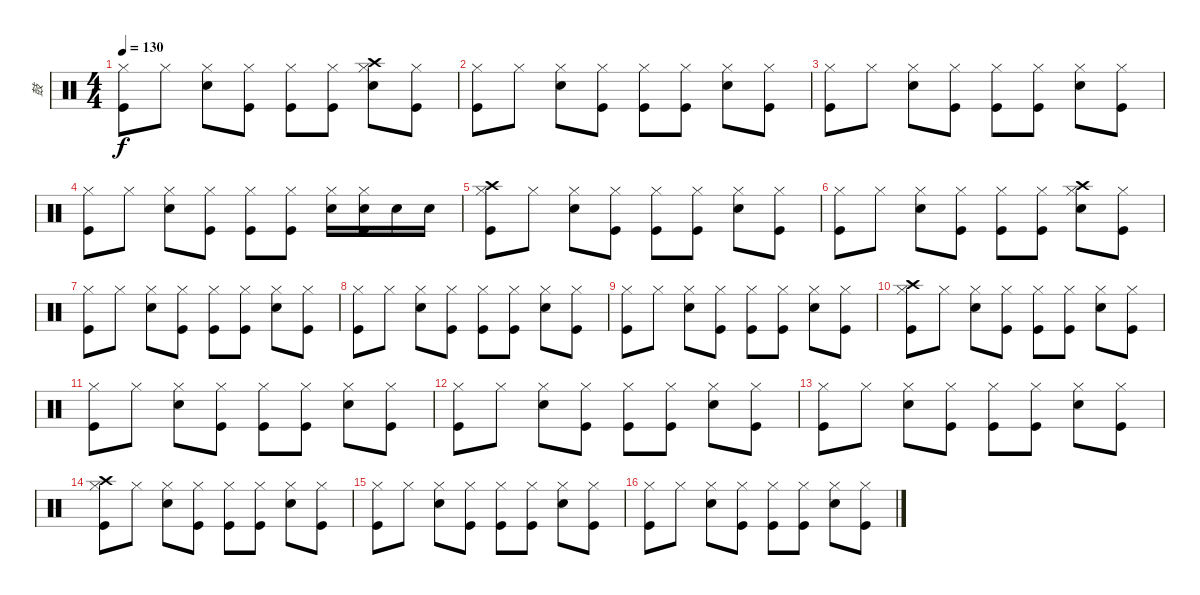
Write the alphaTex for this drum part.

\track ("鼓" "鼓") {instrument percussion}
\staff {score}
\articulation defaults
\ts (4 4)
\tempo 130
\clef neutral
\ks c
("Hi-Hat (closed)" "Kick (hit)").8{dy f} "Hi-Hat (closed)".8 ("Hi-Hat (closed)" "Snare (hit) 2").8 ("Hi-Hat (closed)" "Kick (hit)").8 ("Hi-Hat (closed)" "Kick (hit)").8 ("Hi-Hat (closed)" "Kick (hit)").8 ("Crash high (hit)" "Hi-Hat (closed)" "Snare (hit) 2").8 ("Hi-Hat (closed)" "Kick (hit)").8 |
("Hi-Hat (closed)" "Kick (hit)").8 "Hi-Hat (closed)".8 ("Hi-Hat (closed)" "Snare (hit) 2").8 ("Hi-Hat (closed)" "Kick (hit)").8 ("Hi-Hat (closed)" "Kick (hit)").8 ("Hi-Hat (closed)" "Kick (hit)").8 ("Hi-Hat (closed)" "Snare (hit) 2").8 ("Hi-Hat (closed)" "Kick (hit)").8 |
("Hi-Hat (closed)" "Kick (hit)").8 "Hi-Hat (closed)".8 ("Hi-Hat (closed)" "Snare (hit) 2").8 ("Hi-Hat (closed)" "Kick (hit)").8 ("Hi-Hat (closed)" "Kick (hit)").8 ("Hi-Hat (closed)" "Kick (hit)").8 ("Hi-Hat (closed)" "Snare (hit) 2").8 ("Hi-Hat (closed)" "Kick (hit)").8 |
("Hi-Hat (closed)" "Kick (hit)").8 "Hi-Hat (closed)".8 ("Hi-Hat (closed)" "Snare (hit) 2").8 ("Hi-Hat (closed)" "Kick (hit)").8 ("Hi-Hat (closed)" "Kick (hit)").8 ("Hi-Hat (closed)" "Kick (hit)").8 ("Hi-Hat (closed)" "Snare (hit) 2").16 ("Hi-Hat (closed)" "Snare (hit) 2" "Kick (hit)").16 "Snare (hit) 2".16 "Snare (hit) 2".16 |
("Crash high (hit)" "Hi-Hat (closed)" "Kick (hit)").8 "Hi-Hat (closed)".8 ("Hi-Hat (closed)" "Snare (hit) 2").8 ("Hi-Hat (closed)" "Kick (hit)").8 ("Hi-Hat (closed)" "Kick (hit)").8 ("Hi-Hat (closed)" "Kick (hit)").8 ("Hi-Hat (closed)" "Snare (hit) 2").8 ("Hi-Hat (closed)" "Kick (hit)").8 |
("Hi-Hat (closed)" "Kick (hit)").8 "Hi-Hat (closed)".8 ("Hi-Hat (closed)" "Snare (hit) 2").8 ("Hi-Hat (closed)" "Kick (hit)").8 ("Hi-Hat (closed)" "Kick (hit)").8 ("Hi-Hat (closed)" "Kick (hit)").8 ("Crash high (hit)" "Hi-Hat (closed)" "Snare (hit) 2").8 ("Hi-Hat (closed)" "Kick (hit)").8 |
("Hi-Hat (closed)" "Kick (hit)").8 "Hi-Hat (closed)".8 ("Hi-Hat (closed)" "Snare (hit) 2").8 ("Hi-Hat (closed)" "Kick (hit)").8 ("Hi-Hat (closed)" "Kick (hit)").8 ("Hi-Hat (closed)" "Kick (hit)").8 ("Hi-Hat (closed)" "Snare (hit) 2").8 ("Hi-Hat (closed)" "Kick (hit)").8 |
("Hi-Hat (closed)" "Kick (hit)").8 "Hi-Hat (closed)".8 ("Hi-Hat (closed)" "Snare (hit) 2").8 ("Hi-Hat (closed)" "Kick (hit)").8 ("Hi-Hat (closed)" "Kick (hit)").8 ("Hi-Hat (closed)" "Kick (hit)").8 ("Hi-Hat (closed)" "Snare (hit) 2").8 ("Hi-Hat (closed)" "Kick (hit)").8 |
("Hi-Hat (closed)" "Kick (hit)").8 "Hi-Hat (closed)".8 ("Hi-Hat (closed)" "Snare (hit) 2").8 ("Hi-Hat (closed)" "Kick (hit)").8 ("Hi-Hat (closed)" "Kick (hit)").8 ("Hi-Hat (closed)" "Kick (hit)").8 ("Hi-Hat (closed)" "Snare (hit) 2").8 ("Hi-Hat (closed)" "Kick (hit)").8 |
("Crash high (hit)" "Hi-Hat (closed)" "Kick (hit)").8 "Hi-Hat (closed)".8 ("Hi-Hat (closed)" "Snare (hit) 2").8 ("Hi-Hat (closed)" "Kick (hit)").8 ("Hi-Hat (closed)" "Kick (hit)").8 ("Hi-Hat (closed)" "Kick (hit)").8 ("Hi-Hat (closed)" "Snare (hit) 2").8 ("Hi-Hat (closed)" "Kick (hit)").8 |
("Hi-Hat (closed)" "Kick (hit)").8 "Hi-Hat (closed)".8 ("Hi-Hat (closed)" "Snare (hit) 2").8 ("Hi-Hat (closed)" "Kick (hit)").8 ("Hi-Hat (closed)" "Kick (hit)").8 ("Hi-Hat (closed)" "Kick (hit)").8 ("Hi-Hat (closed)" "Snare (hit) 2").8 ("Hi-Hat (closed)" "Kick (hit)").8 |
("Hi-Hat (closed)" "Kick (hit)").8 "Hi-Hat (closed)".8 ("Hi-Hat (closed)" "Snare (hit) 2").8 ("Hi-Hat (closed)" "Kick (hit)").8 ("Hi-Hat (closed)" "Kick (hit)").8 ("Hi-Hat (closed)" "Kick (hit)").8 ("Hi-Hat (closed)" "Snare (hit) 2").8 ("Hi-Hat (closed)" "Kick (hit)").8 |
("Hi-Hat (closed)" "Kick (hit)").8 "Hi-Hat (closed)".8 ("Hi-Hat (closed)" "Snare (hit) 2").8 ("Hi-Hat (closed)" "Kick (hit)").8 ("Hi-Hat (closed)" "Kick (hit)").8 ("Hi-Hat (closed)" "Kick (hit)").8 ("Hi-Hat (closed)" "Snare (hit) 2").8 ("Hi-Hat (closed)" "Kick (hit)").8 |
("Crash high (hit)" "Hi-Hat (closed)" "Kick (hit)").8 "Hi-Hat (closed)".8 ("Hi-Hat (closed)" "Snare (hit) 2").8 ("Hi-Hat (closed)" "Kick (hit)").8 ("Hi-Hat (closed)" "Kick (hit)").8 ("Hi-Hat (closed)" "Kick (hit)").8 ("Hi-Hat (closed)" "Snare (hit) 2").8 ("Hi-Hat (closed)" "Kick (hit)").8 |
("Hi-Hat (closed)" "Kick (hit)").8 "Hi-Hat (closed)".8 ("Hi-Hat (closed)" "Snare (hit) 2").8 ("Hi-Hat (closed)" "Kick (hit)").8 ("Hi-Hat (closed)" "Kick (hit)").8 ("Hi-Hat (closed)" "Kick (hit)").8 ("Hi-Hat (closed)" "Snare (hit) 2").8 ("Hi-Hat (closed)" "Kick (hit)").8 |
("Hi-Hat (closed)" "Kick (hit)").8 "Hi-Hat (closed)".8 ("Hi-Hat (closed)" "Snare (hit) 2").8 ("Hi-Hat (closed)" "Kick (hit)").8 ("Hi-Hat (closed)" "Kick (hit)").8 ("Hi-Hat (closed)" "Kick (hit)").8 ("Hi-Hat (closed)" "Snare (hit) 2").8 ("Hi-Hat (closed)" "Kick (hit)").8
